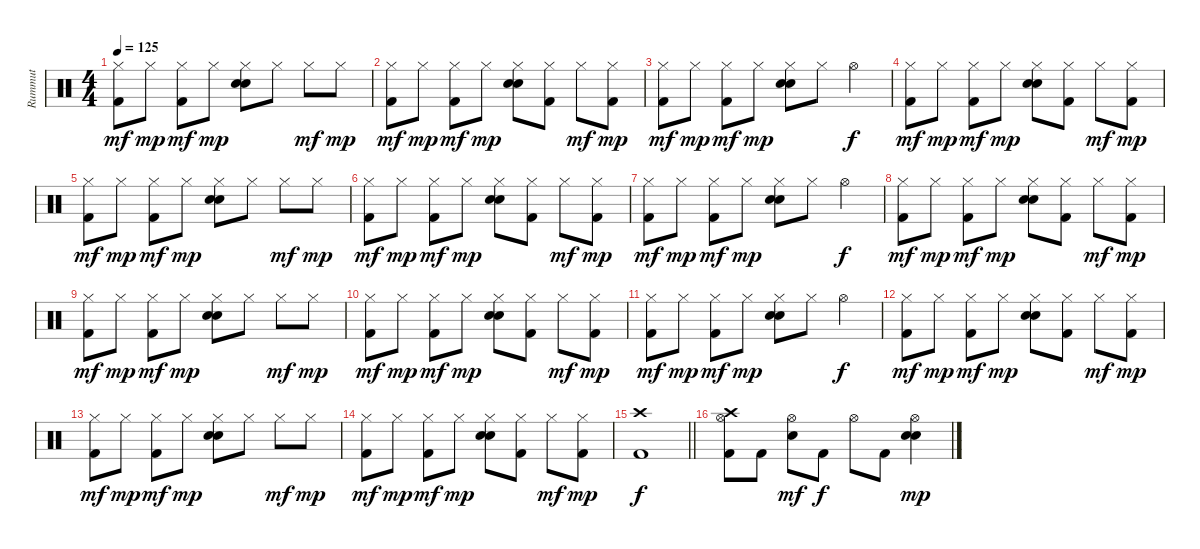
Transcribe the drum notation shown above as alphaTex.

\track ("Rummut" "Rummut") {instrument percussion}
\staff {score}
\articulation defaults
\ts (4 4)
\tempo 125
\clef neutral
\ks c
("Hi-Hat (closed)" "Kick (hit) 2").8{dy mf} "Hi-Hat (closed)".8{dy mp} ("Hi-Hat (closed)" "Kick (hit) 2").8{dy mf} "Hi-Hat (closed)".8{dy mp} ("Hi-Hat (closed)" "Electric Snare (hit)" "Snare (hit) 2").8 "Hi-Hat (closed)".8 "Hi-Hat (closed)".8{dy mf} "Hi-Hat (closed)".8{dy mp} |
("Hi-Hat (closed)" "Kick (hit) 2").8{dy mf} "Hi-Hat (closed)".8{dy mp} ("Hi-Hat (closed)" "Kick (hit) 2").8{dy mf} "Hi-Hat (closed)".8{dy mp} ("Hi-Hat (closed)" "Electric Snare (hit)" "Snare (hit) 2").8 ("Hi-Hat (closed)" "Kick (hit) 2").8 "Hi-Hat (closed)".8{dy mf} ("Hi-Hat (closed)" "Kick (hit) 2").8{dy mp} |
("Hi-Hat (closed)" "Kick (hit) 2").8{dy mf} "Hi-Hat (closed)".8{dy mp} ("Hi-Hat (closed)" "Kick (hit) 2").8{dy mf} "Hi-Hat (closed)".8{dy mp} ("Hi-Hat (closed)" "Electric Snare (hit)" "Snare (hit) 2").8 "Hi-Hat (closed)".8 "Hi-Hat (open)".4{dy f} |
("Hi-Hat (closed)" "Kick (hit) 2").8{dy mf} "Hi-Hat (closed)".8{dy mp} ("Hi-Hat (closed)" "Kick (hit) 2").8{dy mf} "Hi-Hat (closed)".8{dy mp} ("Hi-Hat (closed)" "Electric Snare (hit)" "Snare (hit) 2").8 ("Hi-Hat (closed)" "Kick (hit) 2").8 "Hi-Hat (closed)".8{dy mf} ("Hi-Hat (closed)" "Kick (hit) 2").8{dy mp} |
("Hi-Hat (closed)" "Kick (hit) 2").8{dy mf} "Hi-Hat (closed)".8{dy mp} ("Hi-Hat (closed)" "Kick (hit) 2").8{dy mf} "Hi-Hat (closed)".8{dy mp} ("Hi-Hat (closed)" "Electric Snare (hit)" "Snare (hit) 2").8 "Hi-Hat (closed)".8 "Hi-Hat (closed)".8{dy mf} "Hi-Hat (closed)".8{dy mp} |
("Hi-Hat (closed)" "Kick (hit) 2").8{dy mf} "Hi-Hat (closed)".8{dy mp} ("Hi-Hat (closed)" "Kick (hit) 2").8{dy mf} "Hi-Hat (closed)".8{dy mp} ("Hi-Hat (closed)" "Electric Snare (hit)" "Snare (hit) 2").8 ("Hi-Hat (closed)" "Kick (hit) 2").8 "Hi-Hat (closed)".8{dy mf} ("Hi-Hat (closed)" "Kick (hit) 2").8{dy mp} |
("Hi-Hat (closed)" "Kick (hit) 2").8{dy mf} "Hi-Hat (closed)".8{dy mp} ("Hi-Hat (closed)" "Kick (hit) 2").8{dy mf} "Hi-Hat (closed)".8{dy mp} ("Hi-Hat (closed)" "Electric Snare (hit)" "Snare (hit) 2").8 "Hi-Hat (closed)".8 "Hi-Hat (open)".4{dy f} |
("Hi-Hat (closed)" "Kick (hit) 2").8{dy mf} "Hi-Hat (closed)".8{dy mp} ("Hi-Hat (closed)" "Kick (hit) 2").8{dy mf} "Hi-Hat (closed)".8{dy mp} ("Hi-Hat (closed)" "Electric Snare (hit)" "Snare (hit) 2").8 ("Hi-Hat (closed)" "Kick (hit) 2").8 "Hi-Hat (closed)".8{dy mf} ("Hi-Hat (closed)" "Kick (hit) 2").8{dy mp} |
("Hi-Hat (closed)" "Kick (hit) 2").8{dy mf} "Hi-Hat (closed)".8{dy mp} ("Hi-Hat (closed)" "Kick (hit) 2").8{dy mf} "Hi-Hat (closed)".8{dy mp} ("Hi-Hat (closed)" "Electric Snare (hit)" "Snare (hit) 2").8 "Hi-Hat (closed)".8 "Hi-Hat (closed)".8{dy mf} "Hi-Hat (closed)".8{dy mp} |
("Hi-Hat (closed)" "Kick (hit) 2").8{dy mf} "Hi-Hat (closed)".8{dy mp} ("Hi-Hat (closed)" "Kick (hit) 2").8{dy mf} "Hi-Hat (closed)".8{dy mp} ("Hi-Hat (closed)" "Electric Snare (hit)" "Snare (hit) 2").8 ("Hi-Hat (closed)" "Kick (hit) 2").8 "Hi-Hat (closed)".8{dy mf} ("Hi-Hat (closed)" "Kick (hit) 2").8{dy mp} |
("Hi-Hat (closed)" "Kick (hit) 2").8{dy mf} "Hi-Hat (closed)".8{dy mp} ("Hi-Hat (closed)" "Kick (hit) 2").8{dy mf} "Hi-Hat (closed)".8{dy mp} ("Hi-Hat (closed)" "Electric Snare (hit)" "Snare (hit) 2").8 "Hi-Hat (closed)".8 "Hi-Hat (open)".4{dy f} |
("Hi-Hat (closed)" "Kick (hit) 2").8{dy mf} "Hi-Hat (closed)".8{dy mp} ("Hi-Hat (closed)" "Kick (hit) 2").8{dy mf} "Hi-Hat (closed)".8{dy mp} ("Hi-Hat (closed)" "Electric Snare (hit)" "Snare (hit) 2").8 ("Hi-Hat (closed)" "Kick (hit) 2").8 "Hi-Hat (closed)".8{dy mf} ("Hi-Hat (closed)" "Kick (hit) 2").8{dy mp} |
("Hi-Hat (closed)" "Kick (hit) 2").8{dy mf} "Hi-Hat (closed)".8{dy mp} ("Hi-Hat (closed)" "Kick (hit) 2").8{dy mf} "Hi-Hat (closed)".8{dy mp} ("Hi-Hat (closed)" "Electric Snare (hit)" "Snare (hit) 2").8 "Hi-Hat (closed)".8 "Hi-Hat (closed)".8{dy mf} "Hi-Hat (closed)".8{dy mp} |
("Hi-Hat (closed)" "Kick (hit) 2").8{dy mf} "Hi-Hat (closed)".8{dy mp} ("Hi-Hat (closed)" "Kick (hit) 2").8{dy mf} "Hi-Hat (closed)".8{dy mp} ("Hi-Hat (closed)" "Electric Snare (hit)" "Snare (hit) 2").8 ("Hi-Hat (closed)" "Kick (hit) 2").8 "Hi-Hat (closed)".8{dy mf} ("Hi-Hat (closed)" "Kick (hit) 2").8{dy mp} |
\barLineRight lightlight
("Crash high (hit)" "Kick (hit) 2").1{dy f} |
\section ("" "")
("Crash high (hit)" "Hi-Hat (open)" "Kick (hit) 2").8{volume 13 balance 8} "Kick (hit) 2".8 ("Hi-Hat (open)" "Electric Snare (hit)").8{dy mf} "Kick (hit) 2".8{dy f} "Hi-Hat (open)".8 "Kick (hit) 2".8 ("Hi-Hat (open)" "Electric Snare (hit)" "Snare (hit) 2").4{dy mp}
